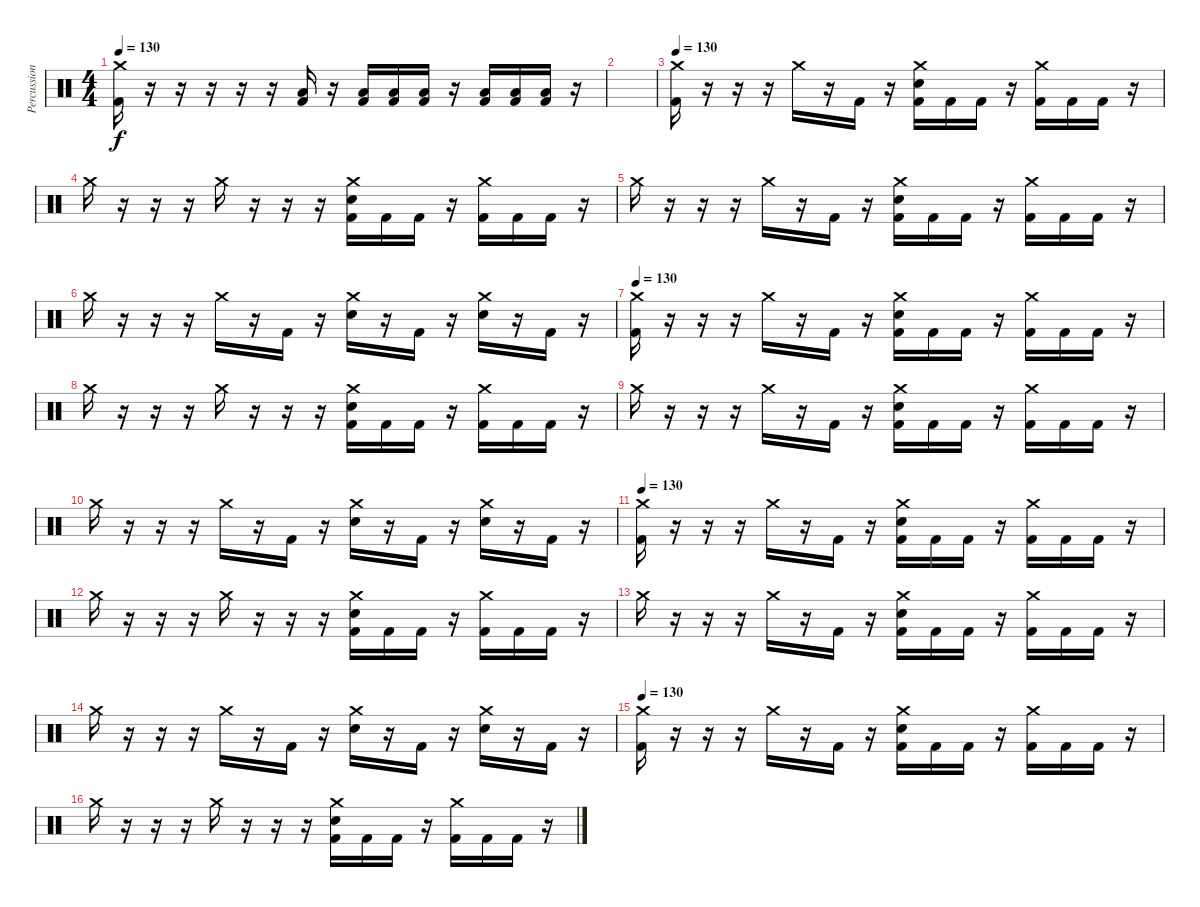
\track ("Percussion" "Percussion") {instrument percussion}
\staff {score}
\articulation defaults
\ts (4 4)
\tempo 130
\clef neutral
\ks c
("Crash medium (hit)" "Kick (hit) 2").16{dy f} r.16 r.16 r.16 r.16 r.16 ("Low Tom (hit)" "Kick (hit) 2").16 r.16 ("Low Tom (hit)" "Kick (hit) 2").16 ("Low Tom (hit)" "Kick (hit) 2").16 ("Low Tom (hit)" "Kick (hit) 2").16 r.16 ("Low Tom (hit)" "Kick (hit) 2").16 ("Low Tom (hit)" "Kick (hit) 2").16 ("Low Tom (hit)" "Kick (hit) 2").16 r.16 |
|
\tempo 130
("Crash medium (hit)" "Kick (hit) 2").16 r.16 r.16 r.16 "Crash medium (hit)".16 r.16 "Kick (hit) 2".16 r.16 ("Crash medium (hit)" "Electric Snare (hit)" "Kick (hit) 2").16 "Kick (hit) 2".16 "Kick (hit) 2".16 r.16 ("Crash medium (hit)" "Kick (hit) 2").16 "Kick (hit) 2".16 "Kick (hit) 2".16 r.16 |
"Crash medium (hit)".16 r.16 r.16 r.16 "Crash medium (hit)".16 r.16 r.16 r.16 ("Crash medium (hit)" "Electric Snare (hit)" "Kick (hit) 2").16 "Kick (hit) 2".16 "Kick (hit) 2".16 r.16 ("Crash medium (hit)" "Kick (hit) 2").16 "Kick (hit) 2".16 "Kick (hit) 2".16 r.16 |
"Crash medium (hit)".16 r.16 r.16 r.16 "Crash medium (hit)".16 r.16 "Kick (hit) 2".16 r.16 ("Crash medium (hit)" "Electric Snare (hit)" "Kick (hit) 2").16 "Kick (hit) 2".16 "Kick (hit) 2".16 r.16 ("Crash medium (hit)" "Kick (hit) 2").16 "Kick (hit) 2".16 "Kick (hit) 2".16 r.16 |
"Crash medium (hit)".16 r.16 r.16 r.16 "Crash medium (hit)".16 r.16 "Kick (hit) 2".16 r.16 ("Crash medium (hit)" "Electric Snare (hit)").16 r.16 "Kick (hit) 2".16 r.16 ("Crash medium (hit)" "Electric Snare (hit)").16 r.16 "Kick (hit) 2".16 r.16 |
\tempo 130
("Crash medium (hit)" "Kick (hit) 2").16 r.16 r.16 r.16 "Crash medium (hit)".16 r.16 "Kick (hit) 2".16 r.16 ("Crash medium (hit)" "Electric Snare (hit)" "Kick (hit) 2").16 "Kick (hit) 2".16 "Kick (hit) 2".16 r.16 ("Crash medium (hit)" "Kick (hit) 2").16 "Kick (hit) 2".16 "Kick (hit) 2".16 r.16 |
"Crash medium (hit)".16 r.16 r.16 r.16 "Crash medium (hit)".16 r.16 r.16 r.16 ("Crash medium (hit)" "Electric Snare (hit)" "Kick (hit) 2").16 "Kick (hit) 2".16 "Kick (hit) 2".16 r.16 ("Crash medium (hit)" "Kick (hit) 2").16 "Kick (hit) 2".16 "Kick (hit) 2".16 r.16 |
"Crash medium (hit)".16 r.16 r.16 r.16 "Crash medium (hit)".16 r.16 "Kick (hit) 2".16 r.16 ("Crash medium (hit)" "Electric Snare (hit)" "Kick (hit) 2").16 "Kick (hit) 2".16 "Kick (hit) 2".16 r.16 ("Crash medium (hit)" "Kick (hit) 2").16 "Kick (hit) 2".16 "Kick (hit) 2".16 r.16 |
"Crash medium (hit)".16 r.16 r.16 r.16 "Crash medium (hit)".16 r.16 "Kick (hit) 2".16 r.16 ("Crash medium (hit)" "Electric Snare (hit)").16 r.16 "Kick (hit) 2".16 r.16 ("Crash medium (hit)" "Electric Snare (hit)").16 r.16 "Kick (hit) 2".16 r.16 |
\tempo 130
("Crash medium (hit)" "Kick (hit) 2").16 r.16 r.16 r.16 "Crash medium (hit)".16 r.16 "Kick (hit) 2".16 r.16 ("Crash medium (hit)" "Electric Snare (hit)" "Kick (hit) 2").16 "Kick (hit) 2".16 "Kick (hit) 2".16 r.16 ("Crash medium (hit)" "Kick (hit) 2").16 "Kick (hit) 2".16 "Kick (hit) 2".16 r.16 |
"Crash medium (hit)".16 r.16 r.16 r.16 "Crash medium (hit)".16 r.16 r.16 r.16 ("Crash medium (hit)" "Electric Snare (hit)" "Kick (hit) 2").16 "Kick (hit) 2".16 "Kick (hit) 2".16 r.16 ("Crash medium (hit)" "Kick (hit) 2").16 "Kick (hit) 2".16 "Kick (hit) 2".16 r.16 |
"Crash medium (hit)".16 r.16 r.16 r.16 "Crash medium (hit)".16 r.16 "Kick (hit) 2".16 r.16 ("Crash medium (hit)" "Electric Snare (hit)" "Kick (hit) 2").16 "Kick (hit) 2".16 "Kick (hit) 2".16 r.16 ("Crash medium (hit)" "Kick (hit) 2").16 "Kick (hit) 2".16 "Kick (hit) 2".16 r.16 |
"Crash medium (hit)".16 r.16 r.16 r.16 "Crash medium (hit)".16 r.16 "Kick (hit) 2".16 r.16 ("Crash medium (hit)" "Electric Snare (hit)").16 r.16 "Kick (hit) 2".16 r.16 ("Crash medium (hit)" "Electric Snare (hit)").16 r.16 "Kick (hit) 2".16 r.16 |
\tempo 130
("Crash medium (hit)" "Kick (hit) 2").16 r.16 r.16 r.16 "Crash medium (hit)".16 r.16 "Kick (hit) 2".16 r.16 ("Crash medium (hit)" "Electric Snare (hit)" "Kick (hit) 2").16 "Kick (hit) 2".16 "Kick (hit) 2".16 r.16 ("Crash medium (hit)" "Kick (hit) 2").16 "Kick (hit) 2".16 "Kick (hit) 2".16 r.16 |
"Crash medium (hit)".16 r.16 r.16 r.16 "Crash medium (hit)".16 r.16 r.16 r.16 ("Crash medium (hit)" "Electric Snare (hit)" "Kick (hit) 2").16 "Kick (hit) 2".16 "Kick (hit) 2".16 r.16 ("Crash medium (hit)" "Kick (hit) 2").16 "Kick (hit) 2".16 "Kick (hit) 2".16 r.16
